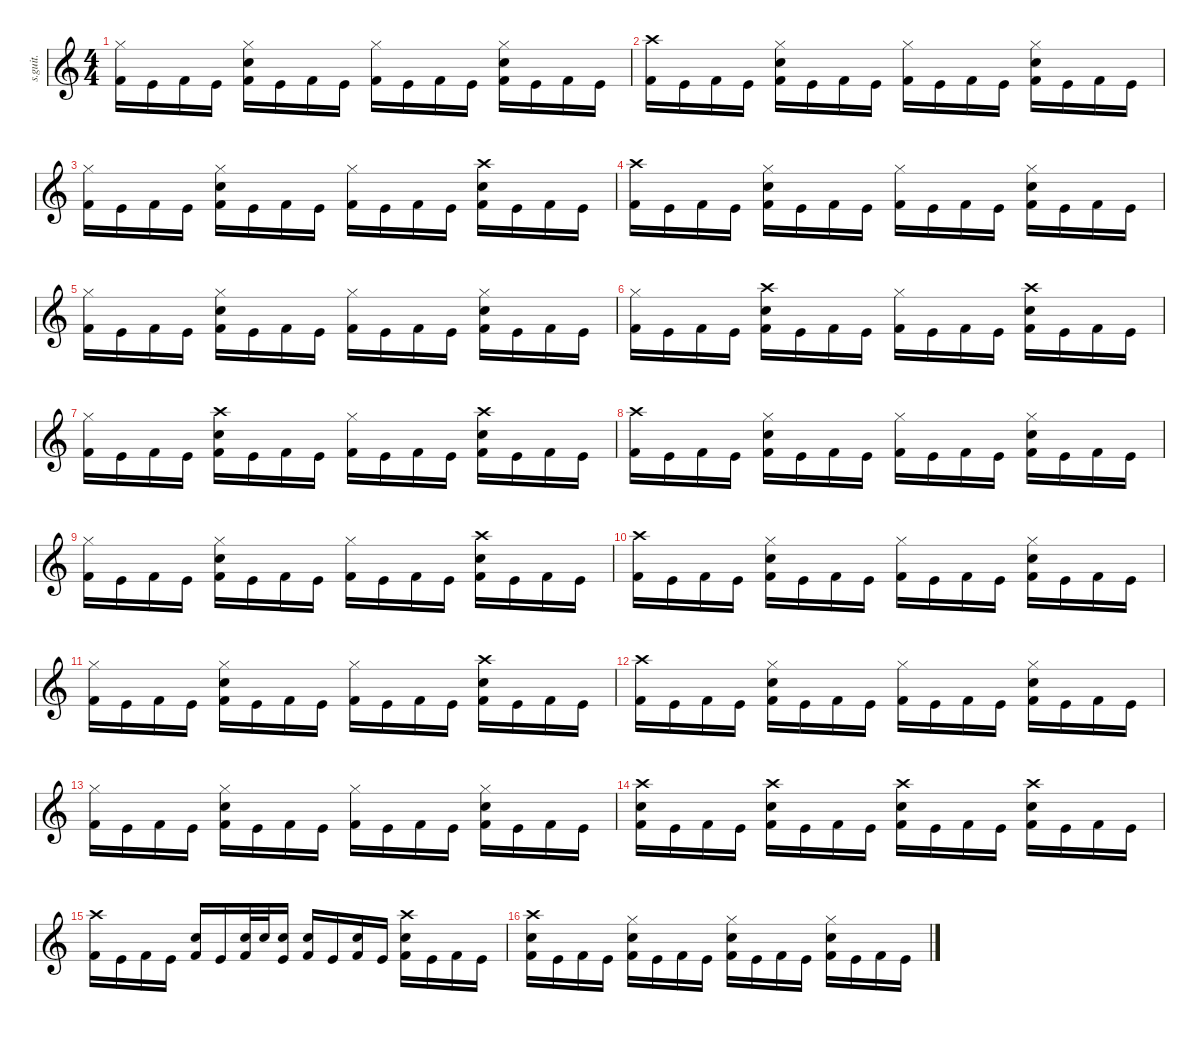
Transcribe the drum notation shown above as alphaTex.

\defaultSystemsLayout 4
\hideDynamics
\bracketExtendMode nobrackets
\track ("Lars Ulrich - Drumzzz" "s.guit.") {instrument percussion}
\staff {score}
\articulation defaults
\ts (4 4)
\tempo (142 hide)
\clef g2
\ks c
("Hi-Hat (closed)" "Kick (hit) 2").16{lyrics (0 "") lyrics (1 "") lyrics (2 "") lyrics (3 "") lyrics (4 "") dy f} "Kick (hit)".16{lyrics (0 "") lyrics (1 "") lyrics (2 "") lyrics (3 "") lyrics (4 "")} "Kick (hit) 2".16{lyrics (0 "") lyrics (1 "") lyrics (2 "") lyrics (3 "") lyrics (4 "")} "Kick (hit)".16{lyrics (0 "") lyrics (1 "") lyrics (2 "") lyrics (3 "") lyrics (4 "")} ("Hi-Hat (closed)" "Snare (hit) 2" "Kick (hit) 2").16{lyrics (0 "") lyrics (1 "") lyrics (2 "") lyrics (3 "") lyrics (4 "")} "Kick (hit)".16{lyrics (0 "") lyrics (1 "") lyrics (2 "") lyrics (3 "") lyrics (4 "")} "Kick (hit) 2".16{lyrics (0 "") lyrics (1 "") lyrics (2 "") lyrics (3 "") lyrics (4 "")} "Kick (hit)".16{lyrics (0 "") lyrics (1 "") lyrics (2 "") lyrics (3 "") lyrics (4 "")} ("Hi-Hat (closed)" "Kick (hit) 2").16{lyrics (0 "") lyrics (1 "") lyrics (2 "") lyrics (3 "") lyrics (4 "")} "Kick (hit)".16{lyrics (0 "") lyrics (1 "") lyrics (2 "") lyrics (3 "") lyrics (4 "")} "Kick (hit) 2".16{lyrics (0 "") lyrics (1 "") lyrics (2 "") lyrics (3 "") lyrics (4 "")} "Kick (hit)".16{lyrics (0 "") lyrics (1 "") lyrics (2 "") lyrics (3 "") lyrics (4 "")} ("Hi-Hat (closed)" "Snare (hit) 2" "Kick (hit) 2").16{lyrics (0 "") lyrics (1 "") lyrics (2 "") lyrics (3 "") lyrics (4 "")} "Kick (hit)".16{lyrics (0 "") lyrics (1 "") lyrics (2 "") lyrics (3 "") lyrics (4 "")} "Kick (hit) 2".16{lyrics (0 "") lyrics (1 "") lyrics (2 "") lyrics (3 "") lyrics (4 "")} "Kick (hit)".16{lyrics (0 "") lyrics (1 "") lyrics (2 "") lyrics (3 "") lyrics (4 "")} |
("Crash high (hit)" "Kick (hit) 2").16{lyrics (0 "") lyrics (1 "") lyrics (2 "") lyrics (3 "") lyrics (4 "")} "Kick (hit)".16{lyrics (0 "") lyrics (1 "") lyrics (2 "") lyrics (3 "") lyrics (4 "")} "Kick (hit) 2".16{lyrics (0 "") lyrics (1 "") lyrics (2 "") lyrics (3 "") lyrics (4 "")} "Kick (hit)".16{lyrics (0 "") lyrics (1 "") lyrics (2 "") lyrics (3 "") lyrics (4 "")} ("Hi-Hat (closed)" "Snare (hit) 2" "Kick (hit) 2").16{lyrics (0 "") lyrics (1 "") lyrics (2 "") lyrics (3 "") lyrics (4 "")} "Kick (hit)".16{lyrics (0 "") lyrics (1 "") lyrics (2 "") lyrics (3 "") lyrics (4 "")} "Kick (hit) 2".16{lyrics (0 "") lyrics (1 "") lyrics (2 "") lyrics (3 "") lyrics (4 "")} "Kick (hit)".16{lyrics (0 "") lyrics (1 "") lyrics (2 "") lyrics (3 "") lyrics (4 "")} ("Hi-Hat (closed)" "Kick (hit) 2").16{lyrics (0 "") lyrics (1 "") lyrics (2 "") lyrics (3 "") lyrics (4 "")} "Kick (hit)".16{lyrics (0 "") lyrics (1 "") lyrics (2 "") lyrics (3 "") lyrics (4 "")} "Kick (hit) 2".16{lyrics (0 "") lyrics (1 "") lyrics (2 "") lyrics (3 "") lyrics (4 "")} "Kick (hit)".16{lyrics (0 "") lyrics (1 "") lyrics (2 "") lyrics (3 "") lyrics (4 "")} ("Hi-Hat (closed)" "Snare (hit) 2" "Kick (hit) 2").16{lyrics (0 "") lyrics (1 "") lyrics (2 "") lyrics (3 "") lyrics (4 "")} "Kick (hit)".16{lyrics (0 "") lyrics (1 "") lyrics (2 "") lyrics (3 "") lyrics (4 "")} "Kick (hit) 2".16{lyrics (0 "") lyrics (1 "") lyrics (2 "") lyrics (3 "") lyrics (4 "")} "Kick (hit)".16{lyrics (0 "") lyrics (1 "") lyrics (2 "") lyrics (3 "") lyrics (4 "")} |
("Hi-Hat (closed)" "Kick (hit) 2").16{lyrics (0 "") lyrics (1 "") lyrics (2 "") lyrics (3 "") lyrics (4 "")} "Kick (hit)".16{lyrics (0 "") lyrics (1 "") lyrics (2 "") lyrics (3 "") lyrics (4 "")} "Kick (hit) 2".16{lyrics (0 "") lyrics (1 "") lyrics (2 "") lyrics (3 "") lyrics (4 "")} "Kick (hit)".16{lyrics (0 "") lyrics (1 "") lyrics (2 "") lyrics (3 "") lyrics (4 "")} ("Hi-Hat (closed)" "Snare (hit) 2" "Kick (hit) 2").16{lyrics (0 "") lyrics (1 "") lyrics (2 "") lyrics (3 "") lyrics (4 "")} "Kick (hit)".16{lyrics (0 "") lyrics (1 "") lyrics (2 "") lyrics (3 "") lyrics (4 "")} "Kick (hit) 2".16{lyrics (0 "") lyrics (1 "") lyrics (2 "") lyrics (3 "") lyrics (4 "")} "Kick (hit)".16{lyrics (0 "") lyrics (1 "") lyrics (2 "") lyrics (3 "") lyrics (4 "")} ("Hi-Hat (closed)" "Kick (hit) 2").16{lyrics (0 "") lyrics (1 "") lyrics (2 "") lyrics (3 "") lyrics (4 "")} "Kick (hit)".16{lyrics (0 "") lyrics (1 "") lyrics (2 "") lyrics (3 "") lyrics (4 "")} "Kick (hit) 2".16{lyrics (0 "") lyrics (1 "") lyrics (2 "") lyrics (3 "") lyrics (4 "")} "Kick (hit)".16{lyrics (0 "") lyrics (1 "") lyrics (2 "") lyrics (3 "") lyrics (4 "")} ("Crash high (hit)" "Snare (hit) 2" "Kick (hit) 2").16{lyrics (0 "") lyrics (1 "") lyrics (2 "") lyrics (3 "") lyrics (4 "")} "Kick (hit)".16{lyrics (0 "") lyrics (1 "") lyrics (2 "") lyrics (3 "") lyrics (4 "")} "Kick (hit) 2".16{lyrics (0 "") lyrics (1 "") lyrics (2 "") lyrics (3 "") lyrics (4 "")} "Kick (hit)".16{lyrics (0 "") lyrics (1 "") lyrics (2 "") lyrics (3 "") lyrics (4 "")} |
("Crash high (hit)" "Kick (hit) 2").16{lyrics (0 "") lyrics (1 "") lyrics (2 "") lyrics (3 "") lyrics (4 "")} "Kick (hit)".16{lyrics (0 "") lyrics (1 "") lyrics (2 "") lyrics (3 "") lyrics (4 "")} "Kick (hit) 2".16{lyrics (0 "") lyrics (1 "") lyrics (2 "") lyrics (3 "") lyrics (4 "")} "Kick (hit)".16{lyrics (0 "") lyrics (1 "") lyrics (2 "") lyrics (3 "") lyrics (4 "")} ("Hi-Hat (closed)" "Snare (hit) 2" "Kick (hit) 2").16{lyrics (0 "") lyrics (1 "") lyrics (2 "") lyrics (3 "") lyrics (4 "")} "Kick (hit)".16{lyrics (0 "") lyrics (1 "") lyrics (2 "") lyrics (3 "") lyrics (4 "")} "Kick (hit) 2".16{lyrics (0 "") lyrics (1 "") lyrics (2 "") lyrics (3 "") lyrics (4 "")} "Kick (hit)".16{lyrics (0 "") lyrics (1 "") lyrics (2 "") lyrics (3 "") lyrics (4 "")} ("Hi-Hat (closed)" "Kick (hit) 2").16{lyrics (0 "") lyrics (1 "") lyrics (2 "") lyrics (3 "") lyrics (4 "")} "Kick (hit)".16{lyrics (0 "") lyrics (1 "") lyrics (2 "") lyrics (3 "") lyrics (4 "")} "Kick (hit) 2".16{lyrics (0 "") lyrics (1 "") lyrics (2 "") lyrics (3 "") lyrics (4 "")} "Kick (hit)".16{lyrics (0 "") lyrics (1 "") lyrics (2 "") lyrics (3 "") lyrics (4 "")} ("Hi-Hat (closed)" "Snare (hit) 2" "Kick (hit) 2").16{lyrics (0 "") lyrics (1 "") lyrics (2 "") lyrics (3 "") lyrics (4 "")} "Kick (hit)".16{lyrics (0 "") lyrics (1 "") lyrics (2 "") lyrics (3 "") lyrics (4 "")} "Kick (hit) 2".16{lyrics (0 "") lyrics (1 "") lyrics (2 "") lyrics (3 "") lyrics (4 "")} "Kick (hit)".16{lyrics (0 "") lyrics (1 "") lyrics (2 "") lyrics (3 "") lyrics (4 "")} |
("Hi-Hat (closed)" "Kick (hit) 2").16{lyrics (0 "") lyrics (1 "") lyrics (2 "") lyrics (3 "") lyrics (4 "")} "Kick (hit)".16{lyrics (0 "") lyrics (1 "") lyrics (2 "") lyrics (3 "") lyrics (4 "")} "Kick (hit) 2".16{lyrics (0 "") lyrics (1 "") lyrics (2 "") lyrics (3 "") lyrics (4 "")} "Kick (hit)".16{lyrics (0 "") lyrics (1 "") lyrics (2 "") lyrics (3 "") lyrics (4 "")} ("Hi-Hat (closed)" "Snare (hit) 2" "Kick (hit) 2").16{lyrics (0 "") lyrics (1 "") lyrics (2 "") lyrics (3 "") lyrics (4 "")} "Kick (hit)".16{lyrics (0 "") lyrics (1 "") lyrics (2 "") lyrics (3 "") lyrics (4 "")} "Kick (hit) 2".16{lyrics (0 "") lyrics (1 "") lyrics (2 "") lyrics (3 "") lyrics (4 "")} "Kick (hit)".16{lyrics (0 "") lyrics (1 "") lyrics (2 "") lyrics (3 "") lyrics (4 "")} ("Hi-Hat (closed)" "Kick (hit) 2").16{lyrics (0 "") lyrics (1 "") lyrics (2 "") lyrics (3 "") lyrics (4 "")} "Kick (hit)".16{lyrics (0 "") lyrics (1 "") lyrics (2 "") lyrics (3 "") lyrics (4 "")} "Kick (hit) 2".16{lyrics (0 "") lyrics (1 "") lyrics (2 "") lyrics (3 "") lyrics (4 "")} "Kick (hit)".16{lyrics (0 "") lyrics (1 "") lyrics (2 "") lyrics (3 "") lyrics (4 "")} ("Hi-Hat (closed)" "Snare (hit) 2" "Kick (hit) 2").16{lyrics (0 "") lyrics (1 "") lyrics (2 "") lyrics (3 "") lyrics (4 "")} "Kick (hit)".16{lyrics (0 "") lyrics (1 "") lyrics (2 "") lyrics (3 "") lyrics (4 "")} "Kick (hit) 2".16{lyrics (0 "") lyrics (1 "") lyrics (2 "") lyrics (3 "") lyrics (4 "")} "Kick (hit)".16{lyrics (0 "") lyrics (1 "") lyrics (2 "") lyrics (3 "") lyrics (4 "")} |
("Hi-Hat (closed)" "Kick (hit) 2").16{lyrics (0 "") lyrics (1 "") lyrics (2 "") lyrics (3 "") lyrics (4 "")} "Kick (hit)".16{lyrics (0 "") lyrics (1 "") lyrics (2 "") lyrics (3 "") lyrics (4 "")} "Kick (hit) 2".16{lyrics (0 "") lyrics (1 "") lyrics (2 "") lyrics (3 "") lyrics (4 "")} "Kick (hit)".16{lyrics (0 "") lyrics (1 "") lyrics (2 "") lyrics (3 "") lyrics (4 "")} ("Crash high (hit)" "Snare (hit) 2" "Kick (hit) 2").16{lyrics (0 "") lyrics (1 "") lyrics (2 "") lyrics (3 "") lyrics (4 "")} "Kick (hit)".16{lyrics (0 "") lyrics (1 "") lyrics (2 "") lyrics (3 "") lyrics (4 "")} "Kick (hit) 2".16{lyrics (0 "") lyrics (1 "") lyrics (2 "") lyrics (3 "") lyrics (4 "")} "Kick (hit)".16{lyrics (0 "") lyrics (1 "") lyrics (2 "") lyrics (3 "") lyrics (4 "")} ("Hi-Hat (closed)" "Kick (hit) 2").16{lyrics (0 "") lyrics (1 "") lyrics (2 "") lyrics (3 "") lyrics (4 "")} "Kick (hit)".16{lyrics (0 "") lyrics (1 "") lyrics (2 "") lyrics (3 "") lyrics (4 "")} "Kick (hit) 2".16{lyrics (0 "") lyrics (1 "") lyrics (2 "") lyrics (3 "") lyrics (4 "")} "Kick (hit)".16{lyrics (0 "") lyrics (1 "") lyrics (2 "") lyrics (3 "") lyrics (4 "")} ("Crash high (hit)" "Snare (hit) 2" "Kick (hit) 2").16{lyrics (0 "") lyrics (1 "") lyrics (2 "") lyrics (3 "") lyrics (4 "")} "Kick (hit)".16{lyrics (0 "") lyrics (1 "") lyrics (2 "") lyrics (3 "") lyrics (4 "")} "Kick (hit) 2".16{lyrics (0 "") lyrics (1 "") lyrics (2 "") lyrics (3 "") lyrics (4 "")} "Kick (hit)".16{lyrics (0 "") lyrics (1 "") lyrics (2 "") lyrics (3 "") lyrics (4 "")} |
("Hi-Hat (closed)" "Kick (hit) 2").16{lyrics (0 "") lyrics (1 "") lyrics (2 "") lyrics (3 "") lyrics (4 "")} "Kick (hit)".16{lyrics (0 "") lyrics (1 "") lyrics (2 "") lyrics (3 "") lyrics (4 "")} "Kick (hit) 2".16{lyrics (0 "") lyrics (1 "") lyrics (2 "") lyrics (3 "") lyrics (4 "")} "Kick (hit)".16{lyrics (0 "") lyrics (1 "") lyrics (2 "") lyrics (3 "") lyrics (4 "")} ("Crash high (hit)" "Snare (hit) 2" "Kick (hit) 2").16{lyrics (0 "") lyrics (1 "") lyrics (2 "") lyrics (3 "") lyrics (4 "")} "Kick (hit)".16{lyrics (0 "") lyrics (1 "") lyrics (2 "") lyrics (3 "") lyrics (4 "")} "Kick (hit) 2".16{lyrics (0 "") lyrics (1 "") lyrics (2 "") lyrics (3 "") lyrics (4 "")} "Kick (hit)".16{lyrics (0 "") lyrics (1 "") lyrics (2 "") lyrics (3 "") lyrics (4 "")} ("Hi-Hat (closed)" "Kick (hit) 2").16{lyrics (0 "") lyrics (1 "") lyrics (2 "") lyrics (3 "") lyrics (4 "")} "Kick (hit)".16{lyrics (0 "") lyrics (1 "") lyrics (2 "") lyrics (3 "") lyrics (4 "")} "Kick (hit) 2".16{lyrics (0 "") lyrics (1 "") lyrics (2 "") lyrics (3 "") lyrics (4 "")} "Kick (hit)".16{lyrics (0 "") lyrics (1 "") lyrics (2 "") lyrics (3 "") lyrics (4 "")} ("Crash high (hit)" "Snare (hit) 2" "Kick (hit) 2").16{lyrics (0 "") lyrics (1 "") lyrics (2 "") lyrics (3 "") lyrics (4 "")} "Kick (hit)".16{lyrics (0 "") lyrics (1 "") lyrics (2 "") lyrics (3 "") lyrics (4 "")} "Kick (hit) 2".16{lyrics (0 "") lyrics (1 "") lyrics (2 "") lyrics (3 "") lyrics (4 "")} "Kick (hit)".16{lyrics (0 "") lyrics (1 "") lyrics (2 "") lyrics (3 "") lyrics (4 "")} |
("Crash high (hit)" "Kick (hit) 2").16{lyrics (0 "") lyrics (1 "") lyrics (2 "") lyrics (3 "") lyrics (4 "")} "Kick (hit)".16{lyrics (0 "") lyrics (1 "") lyrics (2 "") lyrics (3 "") lyrics (4 "")} "Kick (hit) 2".16{lyrics (0 "") lyrics (1 "") lyrics (2 "") lyrics (3 "") lyrics (4 "")} "Kick (hit)".16{lyrics (0 "") lyrics (1 "") lyrics (2 "") lyrics (3 "") lyrics (4 "")} ("Hi-Hat (closed)" "Snare (hit) 2" "Kick (hit) 2").16{lyrics (0 "") lyrics (1 "") lyrics (2 "") lyrics (3 "") lyrics (4 "")} "Kick (hit)".16{lyrics (0 "") lyrics (1 "") lyrics (2 "") lyrics (3 "") lyrics (4 "")} "Kick (hit) 2".16{lyrics (0 "") lyrics (1 "") lyrics (2 "") lyrics (3 "") lyrics (4 "")} "Kick (hit)".16{lyrics (0 "") lyrics (1 "") lyrics (2 "") lyrics (3 "") lyrics (4 "")} ("Hi-Hat (closed)" "Kick (hit) 2").16{lyrics (0 "") lyrics (1 "") lyrics (2 "") lyrics (3 "") lyrics (4 "")} "Kick (hit)".16{lyrics (0 "") lyrics (1 "") lyrics (2 "") lyrics (3 "") lyrics (4 "")} "Kick (hit) 2".16{lyrics (0 "") lyrics (1 "") lyrics (2 "") lyrics (3 "") lyrics (4 "")} "Kick (hit)".16{lyrics (0 "") lyrics (1 "") lyrics (2 "") lyrics (3 "") lyrics (4 "")} ("Hi-Hat (closed)" "Snare (hit) 2" "Kick (hit) 2").16{lyrics (0 "") lyrics (1 "") lyrics (2 "") lyrics (3 "") lyrics (4 "")} "Kick (hit)".16{lyrics (0 "") lyrics (1 "") lyrics (2 "") lyrics (3 "") lyrics (4 "")} "Kick (hit) 2".16{lyrics (0 "") lyrics (1 "") lyrics (2 "") lyrics (3 "") lyrics (4 "")} "Kick (hit)".16{lyrics (0 "") lyrics (1 "") lyrics (2 "") lyrics (3 "") lyrics (4 "")} |
("Hi-Hat (closed)" "Kick (hit) 2").16{lyrics (0 "") lyrics (1 "") lyrics (2 "") lyrics (3 "") lyrics (4 "")} "Kick (hit)".16{lyrics (0 "") lyrics (1 "") lyrics (2 "") lyrics (3 "") lyrics (4 "")} "Kick (hit) 2".16{lyrics (0 "") lyrics (1 "") lyrics (2 "") lyrics (3 "") lyrics (4 "")} "Kick (hit)".16{lyrics (0 "") lyrics (1 "") lyrics (2 "") lyrics (3 "") lyrics (4 "")} ("Hi-Hat (closed)" "Snare (hit) 2" "Kick (hit) 2").16{lyrics (0 "") lyrics (1 "") lyrics (2 "") lyrics (3 "") lyrics (4 "")} "Kick (hit)".16{lyrics (0 "") lyrics (1 "") lyrics (2 "") lyrics (3 "") lyrics (4 "")} "Kick (hit) 2".16{lyrics (0 "") lyrics (1 "") lyrics (2 "") lyrics (3 "") lyrics (4 "")} "Kick (hit)".16{lyrics (0 "") lyrics (1 "") lyrics (2 "") lyrics (3 "") lyrics (4 "")} ("Hi-Hat (closed)" "Kick (hit) 2").16{lyrics (0 "") lyrics (1 "") lyrics (2 "") lyrics (3 "") lyrics (4 "")} "Kick (hit)".16{lyrics (0 "") lyrics (1 "") lyrics (2 "") lyrics (3 "") lyrics (4 "")} "Kick (hit) 2".16{lyrics (0 "") lyrics (1 "") lyrics (2 "") lyrics (3 "") lyrics (4 "")} "Kick (hit)".16{lyrics (0 "") lyrics (1 "") lyrics (2 "") lyrics (3 "") lyrics (4 "")} ("Crash high (hit)" "Snare (hit) 2" "Kick (hit) 2").16{lyrics (0 "") lyrics (1 "") lyrics (2 "") lyrics (3 "") lyrics (4 "")} "Kick (hit)".16{lyrics (0 "") lyrics (1 "") lyrics (2 "") lyrics (3 "") lyrics (4 "")} "Kick (hit) 2".16{lyrics (0 "") lyrics (1 "") lyrics (2 "") lyrics (3 "") lyrics (4 "")} "Kick (hit)".16{lyrics (0 "") lyrics (1 "") lyrics (2 "") lyrics (3 "") lyrics (4 "")} |
("Crash high (hit)" "Kick (hit) 2").16{lyrics (0 "") lyrics (1 "") lyrics (2 "") lyrics (3 "") lyrics (4 "")} "Kick (hit)".16{lyrics (0 "") lyrics (1 "") lyrics (2 "") lyrics (3 "") lyrics (4 "")} "Kick (hit) 2".16{lyrics (0 "") lyrics (1 "") lyrics (2 "") lyrics (3 "") lyrics (4 "")} "Kick (hit)".16{lyrics (0 "") lyrics (1 "") lyrics (2 "") lyrics (3 "") lyrics (4 "")} ("Hi-Hat (closed)" "Snare (hit) 2" "Kick (hit) 2").16{lyrics (0 "") lyrics (1 "") lyrics (2 "") lyrics (3 "") lyrics (4 "")} "Kick (hit)".16{lyrics (0 "") lyrics (1 "") lyrics (2 "") lyrics (3 "") lyrics (4 "")} "Kick (hit) 2".16{lyrics (0 "") lyrics (1 "") lyrics (2 "") lyrics (3 "") lyrics (4 "")} "Kick (hit)".16{lyrics (0 "") lyrics (1 "") lyrics (2 "") lyrics (3 "") lyrics (4 "")} ("Hi-Hat (closed)" "Kick (hit) 2").16{lyrics (0 "") lyrics (1 "") lyrics (2 "") lyrics (3 "") lyrics (4 "")} "Kick (hit)".16{lyrics (0 "") lyrics (1 "") lyrics (2 "") lyrics (3 "") lyrics (4 "")} "Kick (hit) 2".16{lyrics (0 "") lyrics (1 "") lyrics (2 "") lyrics (3 "") lyrics (4 "")} "Kick (hit)".16{lyrics (0 "") lyrics (1 "") lyrics (2 "") lyrics (3 "") lyrics (4 "")} ("Hi-Hat (closed)" "Snare (hit) 2" "Kick (hit) 2").16{lyrics (0 "") lyrics (1 "") lyrics (2 "") lyrics (3 "") lyrics (4 "")} "Kick (hit)".16{lyrics (0 "") lyrics (1 "") lyrics (2 "") lyrics (3 "") lyrics (4 "")} "Kick (hit) 2".16{lyrics (0 "") lyrics (1 "") lyrics (2 "") lyrics (3 "") lyrics (4 "")} "Kick (hit)".16{lyrics (0 "") lyrics (1 "") lyrics (2 "") lyrics (3 "") lyrics (4 "")} |
("Hi-Hat (closed)" "Kick (hit) 2").16{lyrics (0 "") lyrics (1 "") lyrics (2 "") lyrics (3 "") lyrics (4 "")} "Kick (hit)".16{lyrics (0 "") lyrics (1 "") lyrics (2 "") lyrics (3 "") lyrics (4 "")} "Kick (hit) 2".16{lyrics (0 "") lyrics (1 "") lyrics (2 "") lyrics (3 "") lyrics (4 "")} "Kick (hit)".16{lyrics (0 "") lyrics (1 "") lyrics (2 "") lyrics (3 "") lyrics (4 "")} ("Hi-Hat (closed)" "Snare (hit) 2" "Kick (hit) 2").16{lyrics (0 "") lyrics (1 "") lyrics (2 "") lyrics (3 "") lyrics (4 "")} "Kick (hit)".16{lyrics (0 "") lyrics (1 "") lyrics (2 "") lyrics (3 "") lyrics (4 "")} "Kick (hit) 2".16{lyrics (0 "") lyrics (1 "") lyrics (2 "") lyrics (3 "") lyrics (4 "")} "Kick (hit)".16{lyrics (0 "") lyrics (1 "") lyrics (2 "") lyrics (3 "") lyrics (4 "")} ("Hi-Hat (closed)" "Kick (hit) 2").16{lyrics (0 "") lyrics (1 "") lyrics (2 "") lyrics (3 "") lyrics (4 "")} "Kick (hit)".16{lyrics (0 "") lyrics (1 "") lyrics (2 "") lyrics (3 "") lyrics (4 "")} "Kick (hit) 2".16{lyrics (0 "") lyrics (1 "") lyrics (2 "") lyrics (3 "") lyrics (4 "")} "Kick (hit)".16{lyrics (0 "") lyrics (1 "") lyrics (2 "") lyrics (3 "") lyrics (4 "")} ("Crash high (hit)" "Snare (hit) 2" "Kick (hit) 2").16{lyrics (0 "") lyrics (1 "") lyrics (2 "") lyrics (3 "") lyrics (4 "")} "Kick (hit)".16{lyrics (0 "") lyrics (1 "") lyrics (2 "") lyrics (3 "") lyrics (4 "")} "Kick (hit) 2".16{lyrics (0 "") lyrics (1 "") lyrics (2 "") lyrics (3 "") lyrics (4 "")} "Kick (hit)".16{lyrics (0 "") lyrics (1 "") lyrics (2 "") lyrics (3 "") lyrics (4 "")} |
("Crash high (hit)" "Kick (hit) 2").16{lyrics (0 "") lyrics (1 "") lyrics (2 "") lyrics (3 "") lyrics (4 "")} "Kick (hit)".16{lyrics (0 "") lyrics (1 "") lyrics (2 "") lyrics (3 "") lyrics (4 "")} "Kick (hit) 2".16{lyrics (0 "") lyrics (1 "") lyrics (2 "") lyrics (3 "") lyrics (4 "")} "Kick (hit)".16{lyrics (0 "") lyrics (1 "") lyrics (2 "") lyrics (3 "") lyrics (4 "")} ("Hi-Hat (closed)" "Snare (hit) 2" "Kick (hit) 2").16{lyrics (0 "") lyrics (1 "") lyrics (2 "") lyrics (3 "") lyrics (4 "")} "Kick (hit)".16{lyrics (0 "") lyrics (1 "") lyrics (2 "") lyrics (3 "") lyrics (4 "")} "Kick (hit) 2".16{lyrics (0 "") lyrics (1 "") lyrics (2 "") lyrics (3 "") lyrics (4 "")} "Kick (hit)".16{lyrics (0 "") lyrics (1 "") lyrics (2 "") lyrics (3 "") lyrics (4 "")} ("Hi-Hat (closed)" "Kick (hit) 2").16{lyrics (0 "") lyrics (1 "") lyrics (2 "") lyrics (3 "") lyrics (4 "")} "Kick (hit)".16{lyrics (0 "") lyrics (1 "") lyrics (2 "") lyrics (3 "") lyrics (4 "")} "Kick (hit) 2".16{lyrics (0 "") lyrics (1 "") lyrics (2 "") lyrics (3 "") lyrics (4 "")} "Kick (hit)".16{lyrics (0 "") lyrics (1 "") lyrics (2 "") lyrics (3 "") lyrics (4 "")} ("Hi-Hat (closed)" "Snare (hit) 2" "Kick (hit) 2").16{lyrics (0 "") lyrics (1 "") lyrics (2 "") lyrics (3 "") lyrics (4 "")} "Kick (hit)".16{lyrics (0 "") lyrics (1 "") lyrics (2 "") lyrics (3 "") lyrics (4 "")} "Kick (hit) 2".16{lyrics (0 "") lyrics (1 "") lyrics (2 "") lyrics (3 "") lyrics (4 "")} "Kick (hit)".16{lyrics (0 "") lyrics (1 "") lyrics (2 "") lyrics (3 "") lyrics (4 "")} |
("Hi-Hat (closed)" "Kick (hit) 2").16{lyrics (0 "") lyrics (1 "") lyrics (2 "") lyrics (3 "") lyrics (4 "")} "Kick (hit)".16{lyrics (0 "") lyrics (1 "") lyrics (2 "") lyrics (3 "") lyrics (4 "")} "Kick (hit) 2".16{lyrics (0 "") lyrics (1 "") lyrics (2 "") lyrics (3 "") lyrics (4 "")} "Kick (hit)".16{lyrics (0 "") lyrics (1 "") lyrics (2 "") lyrics (3 "") lyrics (4 "")} ("Hi-Hat (closed)" "Snare (hit) 2" "Kick (hit) 2").16{lyrics (0 "") lyrics (1 "") lyrics (2 "") lyrics (3 "") lyrics (4 "")} "Kick (hit)".16{lyrics (0 "") lyrics (1 "") lyrics (2 "") lyrics (3 "") lyrics (4 "")} "Kick (hit) 2".16{lyrics (0 "") lyrics (1 "") lyrics (2 "") lyrics (3 "") lyrics (4 "")} "Kick (hit)".16{lyrics (0 "") lyrics (1 "") lyrics (2 "") lyrics (3 "") lyrics (4 "")} ("Hi-Hat (closed)" "Kick (hit) 2").16{lyrics (0 "") lyrics (1 "") lyrics (2 "") lyrics (3 "") lyrics (4 "")} "Kick (hit)".16{lyrics (0 "") lyrics (1 "") lyrics (2 "") lyrics (3 "") lyrics (4 "")} "Kick (hit) 2".16{lyrics (0 "") lyrics (1 "") lyrics (2 "") lyrics (3 "") lyrics (4 "")} "Kick (hit)".16{lyrics (0 "") lyrics (1 "") lyrics (2 "") lyrics (3 "") lyrics (4 "")} ("Hi-Hat (closed)" "Snare (hit) 2" "Kick (hit) 2").16{lyrics (0 "") lyrics (1 "") lyrics (2 "") lyrics (3 "") lyrics (4 "")} "Kick (hit)".16{lyrics (0 "") lyrics (1 "") lyrics (2 "") lyrics (3 "") lyrics (4 "")} "Kick (hit) 2".16{lyrics (0 "") lyrics (1 "") lyrics (2 "") lyrics (3 "") lyrics (4 "")} "Kick (hit)".16{lyrics (0 "") lyrics (1 "") lyrics (2 "") lyrics (3 "") lyrics (4 "")} |
("Crash high (hit)" "Snare (hit) 2" "Kick (hit) 2").16{lyrics (0 "") lyrics (1 "") lyrics (2 "") lyrics (3 "") lyrics (4 "")} "Kick (hit)".16{lyrics (0 "") lyrics (1 "") lyrics (2 "") lyrics (3 "") lyrics (4 "")} "Kick (hit) 2".16{lyrics (0 "") lyrics (1 "") lyrics (2 "") lyrics (3 "") lyrics (4 "")} "Kick (hit)".16{lyrics (0 "") lyrics (1 "") lyrics (2 "") lyrics (3 "") lyrics (4 "")} ("Crash high (hit)" "Snare (hit) 2" "Kick (hit) 2").16{lyrics (0 "") lyrics (1 "") lyrics (2 "") lyrics (3 "") lyrics (4 "")} "Kick (hit)".16{lyrics (0 "") lyrics (1 "") lyrics (2 "") lyrics (3 "") lyrics (4 "")} "Kick (hit) 2".16{lyrics (0 "") lyrics (1 "") lyrics (2 "") lyrics (3 "") lyrics (4 "")} "Kick (hit)".16{lyrics (0 "") lyrics (1 "") lyrics (2 "") lyrics (3 "") lyrics (4 "")} ("Crash high (hit)" "Snare (hit) 2" "Kick (hit) 2").16{lyrics (0 "") lyrics (1 "") lyrics (2 "") lyrics (3 "") lyrics (4 "")} "Kick (hit)".16{lyrics (0 "") lyrics (1 "") lyrics (2 "") lyrics (3 "") lyrics (4 "")} "Kick (hit) 2".16{lyrics (0 "") lyrics (1 "") lyrics (2 "") lyrics (3 "") lyrics (4 "")} "Kick (hit)".16{lyrics (0 "") lyrics (1 "") lyrics (2 "") lyrics (3 "") lyrics (4 "")} ("Crash high (hit)" "Snare (hit) 2" "Kick (hit) 2").16{lyrics (0 "") lyrics (1 "") lyrics (2 "") lyrics (3 "") lyrics (4 "")} "Kick (hit)".16{lyrics (0 "") lyrics (1 "") lyrics (2 "") lyrics (3 "") lyrics (4 "")} "Kick (hit) 2".16{lyrics (0 "") lyrics (1 "") lyrics (2 "") lyrics (3 "") lyrics (4 "")} "Kick (hit)".16{lyrics (0 "") lyrics (1 "") lyrics (2 "") lyrics (3 "") lyrics (4 "")} |
("Crash high (hit)" "Kick (hit) 2").16{lyrics (0 "") lyrics (1 "") lyrics (2 "") lyrics (3 "") lyrics (4 "")} "Kick (hit)".16{lyrics (0 "") lyrics (1 "") lyrics (2 "") lyrics (3 "") lyrics (4 "")} "Kick (hit) 2".16{lyrics (0 "") lyrics (1 "") lyrics (2 "") lyrics (3 "") lyrics (4 "")} "Kick (hit)".16{lyrics (0 "") lyrics (1 "") lyrics (2 "") lyrics (3 "") lyrics (4 "")} ("Snare (hit) 2" "Kick (hit) 2").16{lyrics (0 "") lyrics (1 "") lyrics (2 "") lyrics (3 "") lyrics (4 "")} "Kick (hit)".16{lyrics (0 "") lyrics (1 "") lyrics (2 "") lyrics (3 "") lyrics (4 "")} ("Snare (hit) 2" "Kick (hit) 2").32{lyrics (0 "") lyrics (1 "") lyrics (2 "") lyrics (3 "") lyrics (4 "")} "Snare (hit) 2".32{lyrics (0 "") lyrics (1 "") lyrics (2 "") lyrics (3 "") lyrics (4 "")} ("Snare (hit) 2" "Kick (hit)").16{lyrics (0 "") lyrics (1 "") lyrics (2 "") lyrics (3 "") lyrics (4 "")} ("Snare (hit) 2" "Kick (hit) 2").16{lyrics (0 "") lyrics (1 "") lyrics (2 "") lyrics (3 "") lyrics (4 "")} "Kick (hit)".16{lyrics (0 "") lyrics (1 "") lyrics (2 "") lyrics (3 "") lyrics (4 "")} ("Snare (hit) 2" "Kick (hit) 2").16{lyrics (0 "") lyrics (1 "") lyrics (2 "") lyrics (3 "") lyrics (4 "")} "Kick (hit)".16{lyrics (0 "") lyrics (1 "") lyrics (2 "") lyrics (3 "") lyrics (4 "")} ("Crash high (hit)" "Snare (hit) 2" "Kick (hit) 2").16{lyrics (0 "") lyrics (1 "") lyrics (2 "") lyrics (3 "") lyrics (4 "")} "Kick (hit)".16{lyrics (0 "") lyrics (1 "") lyrics (2 "") lyrics (3 "") lyrics (4 "")} "Kick (hit) 2".16{lyrics (0 "") lyrics (1 "") lyrics (2 "") lyrics (3 "") lyrics (4 "")} "Kick (hit)".16{lyrics (0 "") lyrics (1 "") lyrics (2 "") lyrics (3 "") lyrics (4 "")} |
("Crash high (hit)" "Snare (hit) 2" "Kick (hit) 2").16{lyrics (0 "") lyrics (1 "") lyrics (2 "") lyrics (3 "") lyrics (4 "")} "Kick (hit)".16{lyrics (0 "") lyrics (1 "") lyrics (2 "") lyrics (3 "") lyrics (4 "")} "Kick (hit) 2".16{lyrics (0 "") lyrics (1 "") lyrics (2 "") lyrics (3 "") lyrics (4 "")} "Kick (hit)".16{lyrics (0 "") lyrics (1 "") lyrics (2 "") lyrics (3 "") lyrics (4 "")} ("Hi-Hat (closed)" "Snare (hit) 2" "Kick (hit) 2").16{lyrics (0 "") lyrics (1 "") lyrics (2 "") lyrics (3 "") lyrics (4 "")} "Kick (hit)".16{lyrics (0 "") lyrics (1 "") lyrics (2 "") lyrics (3 "") lyrics (4 "")} "Kick (hit) 2".16{lyrics (0 "") lyrics (1 "") lyrics (2 "") lyrics (3 "") lyrics (4 "")} "Kick (hit)".16{lyrics (0 "") lyrics (1 "") lyrics (2 "") lyrics (3 "") lyrics (4 "")} ("Hi-Hat (closed)" "Snare (hit) 2" "Kick (hit) 2").16{lyrics (0 "") lyrics (1 "") lyrics (2 "") lyrics (3 "") lyrics (4 "")} "Kick (hit)".16{lyrics (0 "") lyrics (1 "") lyrics (2 "") lyrics (3 "") lyrics (4 "")} "Kick (hit) 2".16{lyrics (0 "") lyrics (1 "") lyrics (2 "") lyrics (3 "") lyrics (4 "")} "Kick (hit)".16{lyrics (0 "") lyrics (1 "") lyrics (2 "") lyrics (3 "") lyrics (4 "")} ("Hi-Hat (closed)" "Snare (hit) 2" "Kick (hit) 2").16{lyrics (0 "") lyrics (1 "") lyrics (2 "") lyrics (3 "") lyrics (4 "")} "Kick (hit)".16{lyrics (0 "") lyrics (1 "") lyrics (2 "") lyrics (3 "") lyrics (4 "")} "Kick (hit) 2".16{lyrics (0 "") lyrics (1 "") lyrics (2 "") lyrics (3 "") lyrics (4 "")} "Kick (hit)".16{lyrics (0 "") lyrics (1 "") lyrics (2 "") lyrics (3 "") lyrics (4 "")}
